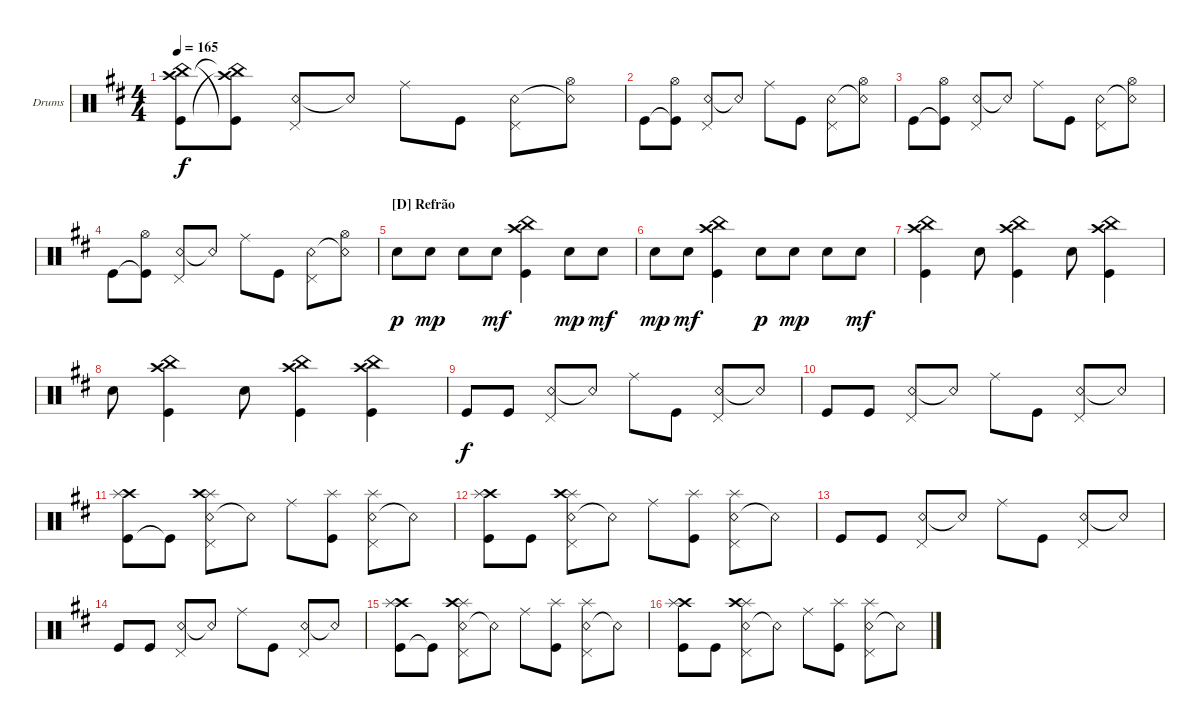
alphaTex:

\defaultSystemsLayout 4
\bracketExtendMode groupsimilarinstruments
\firstSystemTrackNameOrientation horizontal
\otherSystemsTrackNameOrientation horizontal
\track ("Bateria" "Drums") {multiBarRest instrument percussion}
\staff {score}
\articulation defaults
\ts (4 4)
\tempo 165
\clef neutral
\ks d
("China (hit)" "Crash high (hit)" "Kick (hit)").8{dy f} ("Kick (hit)"{t} "China (hit)"{t} "Crash high (hit)"{t}).8 ("Snare (rim shot)" "Pedal Hi-Hat (hit)").8 "Snare (rim shot)"{t}.8 "Ride (middle)".8 "Kick (hit)".8 ("Snare (rim shot)" "Pedal Hi-Hat (hit)").8 ("Snare (rim shot)"{t} "Hi-Hat (open)").8 |
"Kick (hit)".8 ("Kick (hit)"{t} "Hi-Hat (open)").8 ("Snare (rim shot)" "Pedal Hi-Hat (hit)").8 "Snare (rim shot)"{t}.8 "Ride (middle)".8 "Kick (hit)".8 ("Snare (rim shot)" "Pedal Hi-Hat (hit)").8 ("Snare (rim shot)"{t} "Hi-Hat (open)").8 |
"Kick (hit)".8 ("Kick (hit)"{t} "Hi-Hat (open)").8 ("Snare (rim shot)" "Pedal Hi-Hat (hit)").8 "Snare (rim shot)"{t}.8 "Ride (middle)".8 "Kick (hit)".8 ("Snare (rim shot)" "Pedal Hi-Hat (hit)").8 ("Snare (rim shot)"{t} "Hi-Hat (open)").8 |
"Kick (hit)".8 ("Kick (hit)"{t} "Hi-Hat (open)").8 ("Snare (rim shot)" "Pedal Hi-Hat (hit)").8 "Snare (rim shot)"{t}.8 "Ride (middle)".8 "Kick (hit)".8 ("Snare (rim shot)" "Pedal Hi-Hat (hit)").8 ("Snare (rim shot)"{t} "Hi-Hat (open)").8 |
\section ("D" "Refrão")
"Snare (hit) 2".8{dy p} "Snare (hit) 2".8{dy mp} "Snare (hit) 2".8 "Snare (hit) 2".8{dy mf} ("Crash high (hit)" "China (hit)" "Kick (hit)").4 "Snare (hit) 2".8{dy mp} "Snare (hit) 2".8{dy mf} |
"Snare (hit) 2".8{dy mp} "Snare (hit) 2".8{dy mf} ("Crash high (hit)" "China (hit)" "Kick (hit)").4 "Snare (hit) 2".8{dy p} "Snare (hit) 2".8{dy mp} "Snare (hit) 2".8 "Snare (hit) 2".8{dy mf} |
("Crash high (hit)" "China (hit)" "Kick (hit)").4 "Snare (hit) 2".8 ("Crash high (hit)" "China (hit)" "Kick (hit)").4 "Snare (hit) 2".8 ("Crash high (hit)" "China (hit)" "Kick (hit)").4 |
"Snare (hit) 2".8 ("Crash high (hit)" "China (hit)" "Kick (hit)").4 "Snare (hit) 2".8 ("Crash high (hit)" "China (hit)" "Kick (hit)").4 ("Crash high (hit)" "China (hit)" "Kick (hit)").4 |
"Kick (hit)".8{dy f} "Kick (hit)".8 ("Snare (rim shot)" "Pedal Hi-Hat (hit)").8 "Snare (rim shot)"{t}.8 "Ride (middle)".8 "Kick (hit)".8 ("Snare (rim shot)" "Pedal Hi-Hat (hit)").8 "Snare (rim shot)"{t}.8 |
"Kick (hit)".8 "Kick (hit)".8 ("Snare (rim shot)" "Pedal Hi-Hat (hit)").8 "Snare (rim shot)"{t}.8 "Ride (middle)".8 "Kick (hit)".8 ("Snare (rim shot)" "Pedal Hi-Hat (hit)").8 "Snare (rim shot)"{t}.8 |
("Kick (hit)" "Crash high (hit)" "Splash (hit)").8 "Kick (hit)"{t}.8 ("Snare (rim shot)" "Pedal Hi-Hat (hit)" "Splash (hit)" "Crash high (hit)").8 "Snare (rim shot)"{t}.8 "Ride (middle)".8 ("Kick (hit)" "Splash (hit)").8 ("Snare (rim shot)" "Pedal Hi-Hat (hit)" "Splash (hit)").8 "Snare (rim shot)"{t}.8 |
("Kick (hit)" "Crash high (hit)" "Splash (hit)").8 "Kick (hit)".8 ("Snare (rim shot)" "Pedal Hi-Hat (hit)" "Splash (hit)" "Crash high (hit)").8 "Snare (rim shot)"{t}.8 "Ride (middle)".8 ("Kick (hit)" "Splash (hit)").8 ("Snare (rim shot)" "Pedal Hi-Hat (hit)" "Splash (hit)").8 "Snare (rim shot)"{t}.8 |
"Kick (hit)".8 "Kick (hit)".8 ("Snare (rim shot)" "Pedal Hi-Hat (hit)").8 "Snare (rim shot)"{t}.8 "Ride (middle)".8 "Kick (hit)".8 ("Snare (rim shot)" "Pedal Hi-Hat (hit)").8 "Snare (rim shot)"{t}.8 |
"Kick (hit)".8 "Kick (hit)".8 ("Snare (rim shot)" "Pedal Hi-Hat (hit)").8 "Snare (rim shot)"{t}.8 "Ride (middle)".8 "Kick (hit)".8 ("Snare (rim shot)" "Pedal Hi-Hat (hit)").8 "Snare (rim shot)"{t}.8 |
("Kick (hit)" "Crash high (hit)" "Splash (hit)").8 "Kick (hit)"{t}.8 ("Snare (rim shot)" "Pedal Hi-Hat (hit)" "Splash (hit)" "Crash high (hit)").8 "Snare (rim shot)"{t}.8 "Ride (middle)".8 ("Kick (hit)" "Splash (hit)").8 ("Snare (rim shot)" "Pedal Hi-Hat (hit)" "Splash (hit)").8 "Snare (rim shot)"{t}.8 |
("Kick (hit)" "Crash high (hit)" "Splash (hit)").8 "Kick (hit)".8 ("Snare (rim shot)" "Pedal Hi-Hat (hit)" "Splash (hit)" "Crash high (hit)").8 "Snare (rim shot)"{t}.8 "Ride (middle)".8 ("Kick (hit)" "Splash (hit)").8 ("Snare (rim shot)" "Pedal Hi-Hat (hit)" "Splash (hit)").8 "Snare (rim shot)"{t}.8
